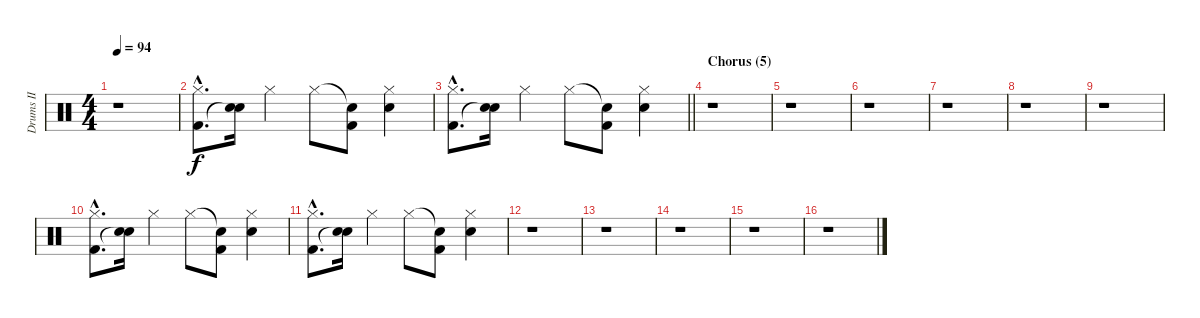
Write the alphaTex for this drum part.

\track ("Drums II" "Drums II") {instrument percussion}
\staff {score}
\articulation defaults
\ts (4 4)
\tempo 94
\clef neutral
\ks aminor
r.1{dy f} |
("Hi-Hat (closed)"{hac} "Kick (hit) 2"{hac}).8{d} ("Electric Snare (hit)" "Snare (hit)"{t}).16 "Hi-Hat (closed)".4 "Hi-Hat (closed)".8 ("Snare (hit)"{t} "Kick (hit) 2").8 ("Hi-Hat (closed)" "Electric Snare (hit)").4 |
\barLineRight lightlight
("Hi-Hat (closed)"{hac} "Kick (hit) 2"{hac}).8{d} ("Electric Snare (hit)" "Snare (hit)"{t}).16 "Hi-Hat (closed)".4 "Hi-Hat (closed)".8 ("Snare (hit)"{t} "Kick (hit) 2").8 ("Hi-Hat (closed)" "Electric Snare (hit)").4 |
\section ("" "Chorus (5)")
r.1 |
r.1 |
r.1 |
r.1 |
r.1 |
r.1 |
("Hi-Hat (closed)"{hac} "Kick (hit) 2"{hac}).8{d} ("Electric Snare (hit)" "Snare (hit)"{t}).16 "Hi-Hat (closed)".4 "Hi-Hat (closed)".8 ("Snare (hit)"{t} "Kick (hit) 2").8 ("Hi-Hat (closed)" "Electric Snare (hit)").4 |
("Hi-Hat (closed)"{hac} "Kick (hit) 2"{hac}).8{d} ("Electric Snare (hit)" "Snare (hit)"{t}).16 "Hi-Hat (closed)".4 "Hi-Hat (closed)".8 ("Snare (hit)"{t} "Kick (hit) 2").8 ("Hi-Hat (closed)" "Electric Snare (hit)").4 |
r.1 |
r.1 |
r.1 |
r.1 |
r.1
